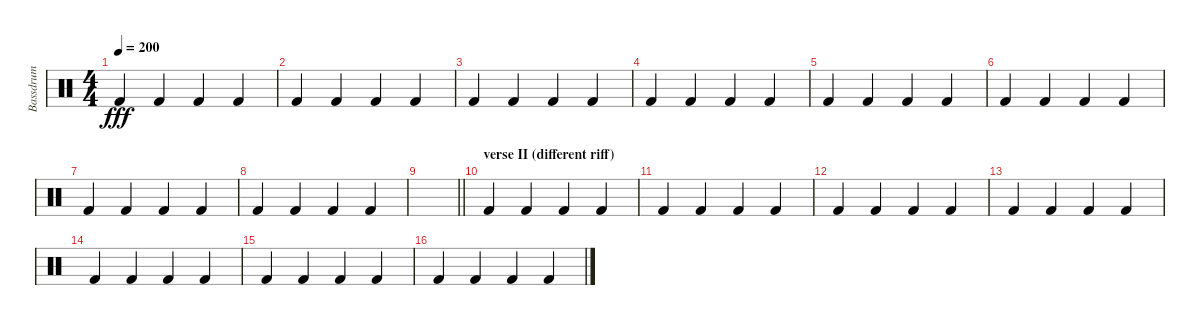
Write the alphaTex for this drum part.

\track ("Bassdrum" "Bassdrum") {instrument percussion}
\staff {score}
\articulation defaults
\ts (4 4)
\tempo 200
\clef neutral
\ks c "Kick (hit) 2".4{dy fff} "Kick (hit) 2".4 "Kick (hit) 2".4 "Kick (hit) 2".4
|
"Kick (hit) 2".4 "Kick (hit) 2".4 "Kick (hit) 2".4 "Kick (hit) 2".4 |
"Kick (hit) 2".4 "Kick (hit) 2".4 "Kick (hit) 2".4 "Kick (hit) 2".4 |
"Kick (hit) 2".4 "Kick (hit) 2".4 "Kick (hit) 2".4 "Kick (hit) 2".4 |
"Kick (hit) 2".4 "Kick (hit) 2".4 "Kick (hit) 2".4 "Kick (hit) 2".4 |
"Kick (hit) 2".4 "Kick (hit) 2".4 "Kick (hit) 2".4 "Kick (hit) 2".4 |
"Kick (hit) 2".4 "Kick (hit) 2".4 "Kick (hit) 2".4 "Kick (hit) 2".4 |
"Kick (hit) 2".4 "Kick (hit) 2".4 "Kick (hit) 2".4 "Kick (hit) 2".4 |
\barLineRight lightlight
|
\section ("" "verse II (different riff)")
"Kick (hit) 2".4 "Kick (hit) 2".4 "Kick (hit) 2".4 "Kick (hit) 2".4 |
"Kick (hit) 2".4 "Kick (hit) 2".4 "Kick (hit) 2".4 "Kick (hit) 2".4 |
"Kick (hit) 2".4 "Kick (hit) 2".4 "Kick (hit) 2".4 "Kick (hit) 2".4 |
"Kick (hit) 2".4 "Kick (hit) 2".4 "Kick (hit) 2".4 "Kick (hit) 2".4 |
"Kick (hit) 2".4 "Kick (hit) 2".4 "Kick (hit) 2".4 "Kick (hit) 2".4 |
"Kick (hit) 2".4 "Kick (hit) 2".4 "Kick (hit) 2".4 "Kick (hit) 2".4 |
"Kick (hit) 2".4 "Kick (hit) 2".4 "Kick (hit) 2".4 "Kick (hit) 2".4
